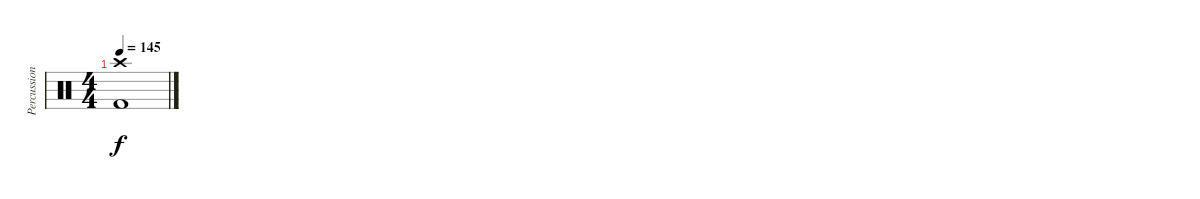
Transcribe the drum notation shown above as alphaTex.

\track ("Percussion" "Percussion") {instrument percussion}
\staff {score}
\articulation defaults
\ts (4 4)
\tempo 145
\clef neutral
\ks c
("Crash high (hit)" "Kick (hit) 2").1{dy f}
